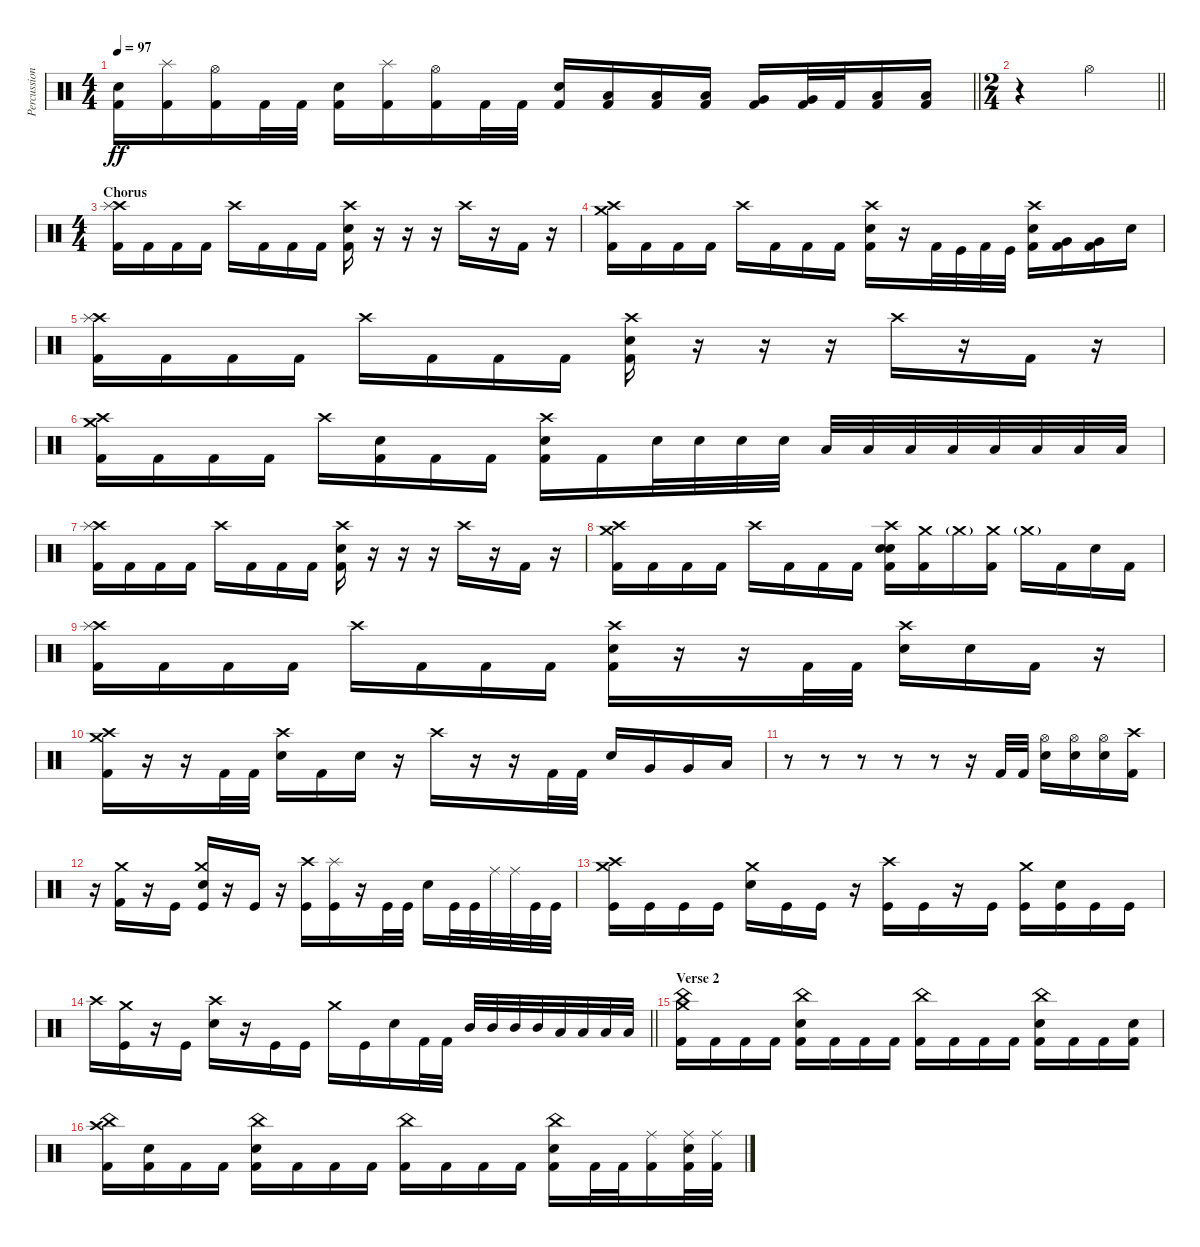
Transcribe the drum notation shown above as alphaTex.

\track ("Percussion" "Percussion") {instrument percussion}
\staff {score}
\articulation defaults
\ts (4 4)
\tempo 97
\clef neutral
\barLineRight lightlight
\ks c
("Electric Snare (hit)" "Kick (hit) 2").16{dy ff} ("Splash (hit)" "Kick (hit) 2").16 ("Hi-Hat (open)" "Kick (hit) 2").16 "Kick (hit) 2".32 "Kick (hit) 2".32 ("Electric Snare (hit)" "Kick (hit) 2").16 ("Splash (hit)" "Kick (hit) 2").16 ("Hi-Hat (open)" "Kick (hit) 2").16 "Kick (hit) 2".32 "Kick (hit) 2".32 ("Electric Snare (hit)" "Kick (hit) 2").16 ("Low Tom (hit)" "Kick (hit) 2").16 ("Low Tom (hit)" "Kick (hit) 2").16 ("Low Tom (hit)" "Kick (hit) 2").16 ("Very Low Tom (hit)" "Kick (hit) 2").16 ("Very Low Tom (hit)" "Kick (hit) 2").32 "Kick (hit) 2".32 ("Low Floor Tom (hit)" "Kick (hit) 2").16 ("Low Floor Tom (hit)" "Kick (hit) 2").16 |
\ts (2 4)
\barLineRight lightlight
r.4 "Hi-Hat (open)".4 |
\ts (4 4)
\section ("" "Chorus")
("Crash high (hit)" "Splash (hit)" "Kick (hit) 2").16 "Kick (hit) 2".16 "Kick (hit) 2".16 "Kick (hit) 2".16 "Crash high (hit)".16 "Kick (hit) 2".16 "Kick (hit) 2".16 "Kick (hit) 2".16 ("Crash high (hit)" "Electric Snare (hit)" "Kick (hit) 2").16 r.16 r.16 r.16 "Crash high (hit)".16 r.16 "Kick (hit) 2".16 r.16 |
("Crash high (hit)" "Crash medium (hit)" "Kick (hit) 2").16 "Kick (hit) 2".16 "Kick (hit) 2".16 "Kick (hit) 2".16 "Crash high (hit)".16 "Kick (hit) 2".16 "Kick (hit) 2".16 "Kick (hit) 2".16 ("Crash high (hit)" "Electric Snare (hit)" "Kick (hit) 2").16 r.16 "Kick (hit) 2".32 "Kick (hit)".32 "Kick (hit) 2".32 "Kick (hit)".32 ("Crash high (hit)" "Electric Snare (hit)" "Kick (hit) 2").16 ("Very Low Tom (hit)" "Kick (hit) 2").16 ("Very Low Tom (hit)" "Kick (hit) 2").16 "Electric Snare (hit)".16 |
("Crash high (hit)" "Splash (hit)" "Kick (hit) 2").16 "Kick (hit) 2".16 "Kick (hit) 2".16 "Kick (hit) 2".16 "Crash high (hit)".16 "Kick (hit) 2".16 "Kick (hit) 2".16 "Kick (hit) 2".16 ("Crash high (hit)" "Electric Snare (hit)" "Kick (hit) 2").16 r.16 r.16 r.16 "Crash high (hit)".16 r.16 "Kick (hit) 2".16 r.16 |
("Crash high (hit)" "Crash medium (hit)" "Kick (hit) 2").16 "Kick (hit) 2".16 "Kick (hit) 2".16 "Kick (hit) 2".16 "Crash high (hit)".16 ("Electric Snare (hit)" "Kick (hit) 2").16 "Kick (hit) 2".16 "Kick (hit) 2".16 ("Crash high (hit)" "Electric Snare (hit)" "Kick (hit) 2").16 "Kick (hit) 2".16 "Electric Snare (hit)".32 "Electric Snare (hit)".32 "Electric Snare (hit)".32 "Electric Snare (hit)".32 "Low Tom (hit)".32 "Low Tom (hit)".32 "Low Tom (hit)".32 "Low Tom (hit)".32 "Low Tom (hit)".32 "Low Tom (hit)".32 "Low Tom (hit)".32 "Low Tom (hit)".32 |
("Crash high (hit)" "Splash (hit)" "Kick (hit) 2").16 "Kick (hit) 2".16 "Kick (hit) 2".16 "Kick (hit) 2".16 "Crash high (hit)".16 "Kick (hit) 2".16 "Kick (hit) 2".16 "Kick (hit) 2".16 ("Crash high (hit)" "Electric Snare (hit)" "Kick (hit) 2").16 r.16 r.16 r.16 "Crash high (hit)".16 r.16 "Kick (hit) 2".16 r.16 |
("Crash high (hit)" "Crash medium (hit)" "Kick (hit) 2").16 "Kick (hit) 2".16 "Kick (hit) 2".16 "Kick (hit) 2".16 "Crash high (hit)".16 "Kick (hit) 2".16 "Kick (hit) 2".16 "Kick (hit) 2".16 ("Crash high (hit)" "Electric Snare (hit)" "Snare (hit) 2" "Kick (hit) 2").16 ("Crash medium (hit)" "Kick (hit) 2").16 "Crash medium (hit)"{g}.16 ("Crash medium (hit)" "Kick (hit) 2").16 "Crash medium (hit)"{g}.16 "Kick (hit) 2".16 "Electric Snare (hit)".16 "Kick (hit) 2".16 |
("Crash high (hit)" "Splash (hit)" "Kick (hit) 2").16 "Kick (hit) 2".16 "Kick (hit) 2".16 "Kick (hit) 2".16 "Crash high (hit)".16 "Kick (hit) 2".16 "Kick (hit) 2".16 "Kick (hit) 2".16 ("Crash high (hit)" "Electric Snare (hit)" "Kick (hit) 2").16 r.16 r.16 "Kick (hit) 2".32 "Kick (hit) 2".32 ("Crash high (hit)" "Electric Snare (hit)").16 "Electric Snare (hit)".16 "Kick (hit) 2".16 r.16 |
("Crash high (hit)" "Crash medium (hit)" "Kick (hit) 2").16 r.16 r.16 "Kick (hit) 2".32 "Kick (hit) 2".32 ("Crash high (hit)" "Electric Snare (hit)").16 "Kick (hit) 2".16 "Electric Snare (hit)".16 r.16 "Crash high (hit)".16 r.16 r.16 "Kick (hit) 2".32 "Kick (hit) 2".32 "Electric Snare (hit)".16 "Very Low Tom (hit)".16 "Very Low Tom (hit)".16 "Low Floor Tom (hit)".16 |
r.8 r.8 r.8 r.8 r.8 r.16 "Kick (hit) 2".32 "Kick (hit) 2".32 ("Hi-Hat (open)" "Electric Snare (hit)").16 ("Hi-Hat (open)" "Electric Snare (hit)").16 ("Hi-Hat (open)" "Electric Snare (hit)").16 ("Crash high (hit)" "Kick (hit) 2").16 |
r.16 ("Crash medium (hit)" "Kick (hit) 2").16 r.16 "Kick (hit)".16 ("Crash medium (hit)" "Electric Snare (hit)" "Kick (hit)").16 r.16 "Kick (hit)".16 r.16 ("Crash high (hit)" "Kick (hit)").16 ("Splash (hit)" "Kick (hit)").16 r.16 "Kick (hit)".32 "Kick (hit)".32 "Electric Snare (hit)".16 "Kick (hit)".32 "Kick (hit)".32 "Ride (middle)".32 "Ride (middle)".32 "Kick (hit)".32 "Kick (hit)".32 |
("Crash high (hit)" "Crash medium (hit)" "Kick (hit)").16 "Kick (hit)".16 "Kick (hit)".16 "Kick (hit)".16 ("Crash medium (hit)" "Electric Snare (hit)").16 "Kick (hit)".16 "Kick (hit)".16 r.16 ("Crash high (hit)" "Kick (hit)").16 "Kick (hit)".16 r.16 "Kick (hit)".16 ("Crash medium (hit)" "Kick (hit)").16 ("Electric Snare (hit)" "Kick (hit)").16 "Kick (hit)".16 "Kick (hit)".16 |
\barLineRight lightlight "Crash high (hit)".16
("Crash medium (hit)" "Kick (hit)").16 r.16 "Kick (hit)".16 ("Crash high (hit)" "Electric Snare (hit)").16 r.16 "Kick (hit)".16 "Kick (hit)".16 "Crash medium (hit)".16 "Kick (hit)".16 "Electric Snare (hit)".16 "Kick (hit) 2".32 "Kick (hit) 2".32 "Mid Tom (hit)".32 "Mid Tom (hit)".32 "Mid Tom (hit)".32 "Mid Tom (hit)".32 "Low Tom (hit)".32 "Low Tom (hit)".32 "Low Tom (hit)".32 "Low Tom (hit)".32 |
\section ("" "Verse 2")
("China (hit)" "Crash medium (hit)" "Kick (hit) 2").16 "Kick (hit) 2".16 "Kick (hit) 2".16 "Kick (hit) 2".16 ("China (hit)" "Electric Snare (hit)" "Kick (hit) 2").16 "Kick (hit) 2".16 "Kick (hit) 2".16 "Kick (hit) 2".16 ("China (hit)" "Kick (hit) 2").16 "Kick (hit) 2".16 "Kick (hit) 2".16 "Kick (hit) 2".16 ("China (hit)" "Electric Snare (hit)" "Kick (hit) 2").16 "Kick (hit) 2".16 "Kick (hit) 2".16 ("Electric Snare (hit)" "Kick (hit) 2").16 |
("China (hit)" "Crash high (hit)" "Kick (hit) 2").16 ("Electric Snare (hit)" "Kick (hit) 2").16 "Kick (hit) 2".16 "Kick (hit) 2".16 ("China (hit)" "Electric Snare (hit)" "Kick (hit) 2").16 "Kick (hit) 2".16 "Kick (hit) 2".16 "Kick (hit) 2".16 ("China (hit)" "Kick (hit) 2").16 "Kick (hit) 2".16 "Kick (hit) 2".16 "Kick (hit) 2".16 ("China (hit)" "Electric Snare (hit)" "Kick (hit) 2").16 "Kick (hit) 2".32 "Kick (hit) 2".32 ("Ride (middle)" "Kick (hit) 2").16 ("Ride (middle)" "Electric Snare (hit)" "Kick (hit) 2").32 ("Ride (middle)" "Kick (hit) 2").32
